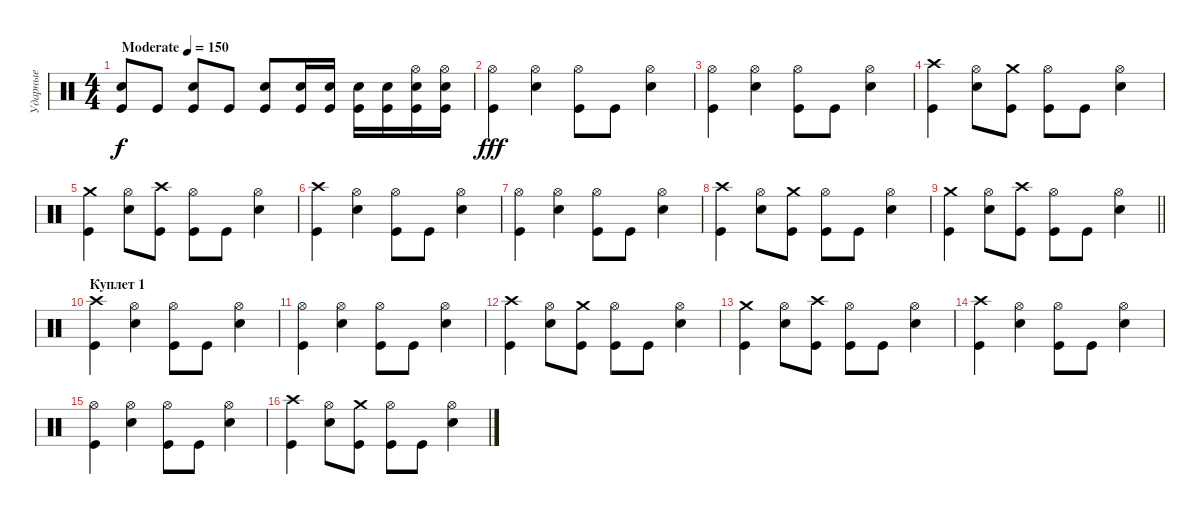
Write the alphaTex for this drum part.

\track ("Ударные" "Ударные") {instrument percussion}
\staff {score}
\articulation defaults
\ts (4 4)
\tempo (150 "Moderate")
\clef neutral
\ks c
("Kick (hit)" "Snare (hit) 2").8{dy f} "Kick (hit)".8 ("Kick (hit)" "Snare (hit) 2").8 "Kick (hit)".8 ("Snare (hit) 2" "Kick (hit)").8 ("Snare (hit) 2" "Kick (hit)").16 ("Kick (hit)" "Snare (hit) 2").16 ("Snare (hit) 2" "Kick (hit)").16 ("Kick (hit)" "Snare (hit) 2").16 ("Snare (hit) 2" "Kick (hit)" "Hi-Hat (open)").16 ("Hi-Hat (open)" "Kick (hit)" "Snare (hit) 2").16 |
("Hi-Hat (open)" "Kick (hit)").4{dy fff} ("Hi-Hat (open)" "Electric Snare (hit)").4 ("Hi-Hat (open)" "Kick (hit)").8 "Kick (hit)".8 ("Hi-Hat (open)" "Electric Snare (hit)").4 |
("Hi-Hat (open)" "Kick (hit)").4 ("Hi-Hat (open)" "Electric Snare (hit)").4 ("Hi-Hat (open)" "Kick (hit)").8 "Kick (hit)".8 ("Hi-Hat (open)" "Electric Snare (hit)").4 |
("Crash high (hit)" "Kick (hit)").4 ("Hi-Hat (open)" "Electric Snare (hit)").8 ("Crash medium (hit)" "Kick (hit)").8 ("Hi-Hat (open)" "Kick (hit)").8 "Kick (hit)".8 ("Hi-Hat (open)" "Electric Snare (hit)").4 |
("Crash medium (hit)" "Kick (hit)").4 ("Hi-Hat (open)" "Electric Snare (hit)").8 ("Crash high (hit)" "Kick (hit)").8 ("Hi-Hat (open)" "Kick (hit)").8 "Kick (hit)".8 ("Hi-Hat (open)" "Electric Snare (hit)").4 |
("Crash high (hit)" "Kick (hit)").4 ("Hi-Hat (open)" "Electric Snare (hit)").4 ("Hi-Hat (open)" "Kick (hit)").8 "Kick (hit)".8 ("Hi-Hat (open)" "Electric Snare (hit)").4 |
("Hi-Hat (open)" "Kick (hit)").4 ("Hi-Hat (open)" "Electric Snare (hit)").4 ("Hi-Hat (open)" "Kick (hit)").8 "Kick (hit)".8 ("Hi-Hat (open)" "Electric Snare (hit)").4 |
("Crash high (hit)" "Kick (hit)").4 ("Hi-Hat (open)" "Electric Snare (hit)").8 ("Crash medium (hit)" "Kick (hit)").8 ("Hi-Hat (open)" "Kick (hit)").8 "Kick (hit)".8 ("Hi-Hat (open)" "Electric Snare (hit)").4 |
\barLineRight lightlight
("Crash medium (hit)" "Kick (hit)").4 ("Hi-Hat (open)" "Electric Snare (hit)").8 ("Crash high (hit)" "Kick (hit)").8 ("Hi-Hat (open)" "Kick (hit)").8 "Kick (hit)".8 ("Hi-Hat (open)" "Electric Snare (hit)").4 |
\section ("" "Куплет 1")
("Crash high (hit)" "Kick (hit)").4 ("Hi-Hat (open)" "Electric Snare (hit)").4 ("Hi-Hat (open)" "Kick (hit)").8 "Kick (hit)".8 ("Hi-Hat (open)" "Electric Snare (hit)").4 |
("Hi-Hat (open)" "Kick (hit)").4 ("Hi-Hat (open)" "Electric Snare (hit)").4 ("Hi-Hat (open)" "Kick (hit)").8 "Kick (hit)".8 ("Hi-Hat (open)" "Electric Snare (hit)").4 |
("Crash high (hit)" "Kick (hit)").4 ("Hi-Hat (open)" "Electric Snare (hit)").8 ("Crash medium (hit)" "Kick (hit)").8 ("Hi-Hat (open)" "Kick (hit)").8 "Kick (hit)".8 ("Hi-Hat (open)" "Electric Snare (hit)").4 |
("Crash medium (hit)" "Kick (hit)").4 ("Hi-Hat (open)" "Electric Snare (hit)").8 ("Crash high (hit)" "Kick (hit)").8 ("Hi-Hat (open)" "Kick (hit)").8 "Kick (hit)".8 ("Hi-Hat (open)" "Electric Snare (hit)").4 |
("Crash high (hit)" "Kick (hit)").4 ("Hi-Hat (open)" "Electric Snare (hit)").4 ("Hi-Hat (open)" "Kick (hit)").8 "Kick (hit)".8 ("Hi-Hat (open)" "Electric Snare (hit)").4 |
("Hi-Hat (open)" "Kick (hit)").4 ("Hi-Hat (open)" "Electric Snare (hit)").4 ("Hi-Hat (open)" "Kick (hit)").8 "Kick (hit)".8 ("Hi-Hat (open)" "Electric Snare (hit)").4 |
("Crash high (hit)" "Kick (hit)").4 ("Hi-Hat (open)" "Electric Snare (hit)").8 ("Crash medium (hit)" "Kick (hit)").8 ("Hi-Hat (open)" "Kick (hit)").8 "Kick (hit)".8 ("Hi-Hat (open)" "Electric Snare (hit)").4
